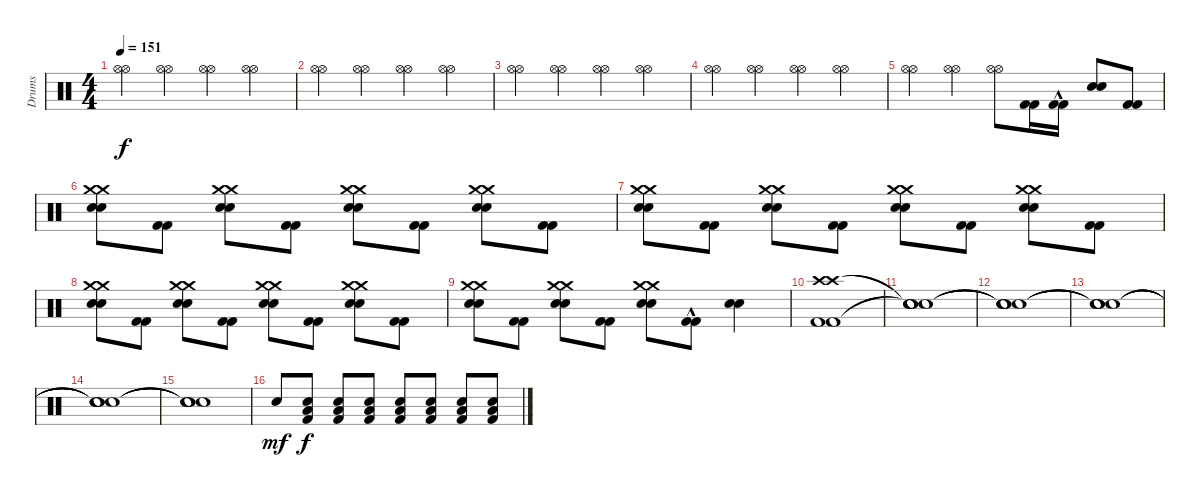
\track ("Drums" "Drums") {instrument percussion}
\staff {score}
\articulation defaults
\ts (4 4)
\tempo 151
\clef neutral
\ks c
("Hi-Hat (open)" "Hi-Hat (open)").4{dy f} ("Hi-Hat (open)" "Hi-Hat (open)").4 ("Hi-Hat (open)" "Hi-Hat (open)").4 ("Hi-Hat (open)" "Hi-Hat (open)").4 |
("Hi-Hat (open)" "Hi-Hat (open)").4 ("Hi-Hat (open)" "Hi-Hat (open)").4 ("Hi-Hat (open)" "Hi-Hat (open)").4 ("Hi-Hat (open)" "Hi-Hat (open)").4 |
("Hi-Hat (open)" "Hi-Hat (open)").4 ("Hi-Hat (open)" "Hi-Hat (open)").4 ("Hi-Hat (open)" "Hi-Hat (open)").4 ("Hi-Hat (open)" "Hi-Hat (open)").4 |
("Hi-Hat (open)" "Hi-Hat (open)").4 ("Hi-Hat (open)" "Hi-Hat (open)").4 ("Hi-Hat (open)" "Hi-Hat (open)").4 ("Hi-Hat (open)" "Hi-Hat (open)").4 |
("Hi-Hat (open)" "Hi-Hat (open)").4 ("Hi-Hat (open)" "Hi-Hat (open)").4 ("Hi-Hat (open)" "Hi-Hat (open)").8 ("Kick (hit) 2" "Kick (hit) 2").16 ("Kick (hit) 2"{hac} "Kick (hit) 2"{hac}).16 ("Electric Snare (hit)" "Electric Snare (hit)").8 ("Kick (hit) 2" "Kick (hit) 2").8 |
("Electric Snare (hit)" "Electric Snare (hit)" "Crash medium (hit)" "Crash medium (hit)").8 ("Kick (hit) 2" "Kick (hit) 2").8 ("Electric Snare (hit)" "Electric Snare (hit)" "Crash medium (hit)" "Crash medium (hit)").8 ("Kick (hit) 2" "Kick (hit) 2").8 ("Electric Snare (hit)" "Electric Snare (hit)" "Crash medium (hit)" "Crash medium (hit)").8 ("Kick (hit) 2" "Kick (hit) 2").8 ("Electric Snare (hit)" "Electric Snare (hit)" "Crash medium (hit)" "Crash medium (hit)").8 ("Kick (hit) 2" "Kick (hit) 2").8 |
("Electric Snare (hit)" "Electric Snare (hit)" "Crash medium (hit)" "Crash medium (hit)").8 ("Kick (hit) 2" "Kick (hit) 2").8 ("Electric Snare (hit)" "Electric Snare (hit)" "Crash medium (hit)" "Crash medium (hit)").8 ("Kick (hit) 2" "Kick (hit) 2").8 ("Electric Snare (hit)" "Electric Snare (hit)" "Crash medium (hit)" "Crash medium (hit)").8 ("Kick (hit) 2" "Kick (hit) 2").8 ("Electric Snare (hit)" "Electric Snare (hit)" "Crash medium (hit)" "Crash medium (hit)").8 ("Kick (hit) 2" "Kick (hit) 2").8 |
("Electric Snare (hit)" "Electric Snare (hit)" "Crash medium (hit)" "Crash medium (hit)").8 ("Kick (hit) 2" "Kick (hit) 2").8 ("Electric Snare (hit)" "Electric Snare (hit)" "Crash medium (hit)" "Crash medium (hit)").8 ("Kick (hit) 2" "Kick (hit) 2").8 ("Electric Snare (hit)" "Electric Snare (hit)" "Crash medium (hit)" "Crash medium (hit)").8 ("Kick (hit) 2" "Kick (hit) 2").8 ("Electric Snare (hit)" "Electric Snare (hit)" "Crash medium (hit)" "Crash medium (hit)").8 ("Kick (hit) 2" "Kick (hit) 2").8 |
("Electric Snare (hit)" "Electric Snare (hit)" "Crash medium (hit)" "Crash medium (hit)").8 ("Kick (hit) 2" "Kick (hit) 2").8 ("Electric Snare (hit)" "Electric Snare (hit)" "Crash medium (hit)" "Crash medium (hit)").8 ("Kick (hit) 2" "Kick (hit) 2").8 ("Electric Snare (hit)" "Electric Snare (hit)" "Crash medium (hit)" "Crash medium (hit)").8 ("Kick (hit) 2"{hac} "Kick (hit) 2"{hac}).8 ("Electric Snare (hit)" "Electric Snare (hit)").4 |
("Kick (hit) 2" "Kick (hit) 2" "Crash high (hit)" "Crash high (hit)").1 |
("Snare (hit)"{t} "Snare (hit)"{t} "Snare (hit)"{t} "Snare (hit)"{t}).1 |
("Snare (hit)"{t} "Snare (hit)"{t} "Snare (hit)"{t} "Snare (hit)"{t}).1 |
("Snare (hit)"{t} "Snare (hit)"{t} "Snare (hit)"{t} "Snare (hit)"{t}).1 |
("Snare (hit)"{t} "Snare (hit)"{t} "Snare (hit)"{t} "Snare (hit)"{t}).1 |
("Snare (hit)"{t} "Snare (hit)"{t} "Snare (hit)"{t} "Snare (hit)"{t}).1 |
"Electric Snare (hit)".8{dy mf} ("Kick (hit) 2" "Electric Snare (hit)" "Low Floor Tom (hit)").8{dy f} ("Kick (hit) 2" "Electric Snare (hit)" "Low Floor Tom (hit)").8 ("Kick (hit) 2" "Electric Snare (hit)" "Low Floor Tom (hit)").8 ("Kick (hit) 2" "Electric Snare (hit)" "Low Floor Tom (hit)").8 ("Kick (hit) 2" "Electric Snare (hit)" "Low Floor Tom (hit)").8 ("Kick (hit) 2" "Electric Snare (hit)" "Low Floor Tom (hit)").8 ("Kick (hit) 2" "Electric Snare (hit)" "Low Floor Tom (hit)").8
